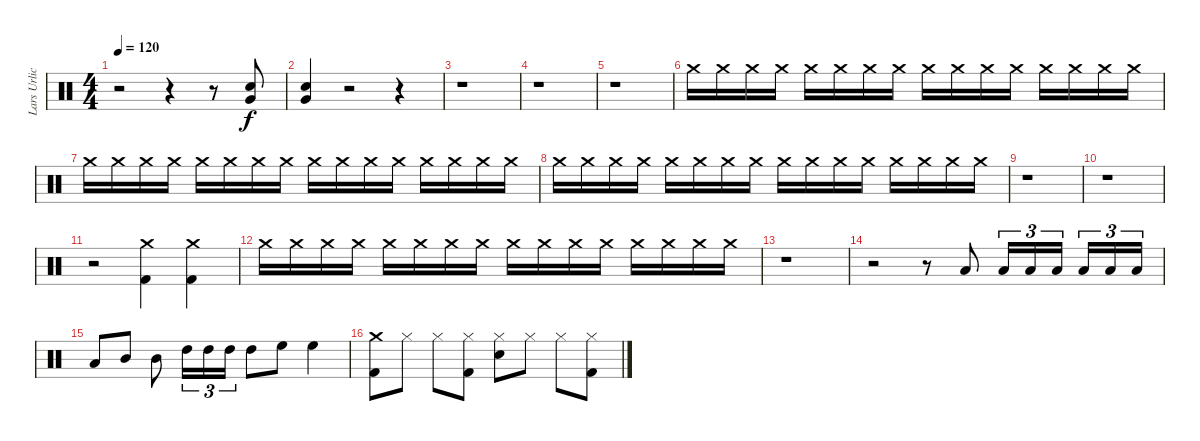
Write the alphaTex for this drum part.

\track ("Lars Urlich (drums)" "Lars Urlic") {instrument percussion}
\staff {score}
\articulation defaults
\ts (4 4)
\tempo 120
\clef neutral
\ks c
r.2{dy f} r.4 r.8 ("Snare (hit) 2" "Very Low Tom (hit)").8 |
("Snare (hit) 2" "Very Low Tom (hit)").4 r.2 r.4 |
r.1 |
r.1 |
r.1 |
"Crash medium (hit)".16 "Crash medium (hit)".16 "Crash medium (hit)".16 "Crash medium (hit)".16 "Crash medium (hit)".16 "Crash medium (hit)".16 "Crash medium (hit)".16 "Crash medium (hit)".16 "Crash medium (hit)".16 "Crash medium (hit)".16 "Crash medium (hit)".16 "Crash medium (hit)".16 "Crash medium (hit)".16 "Crash medium (hit)".16 "Crash medium (hit)".16 "Crash medium (hit)".16 |
"Crash medium (hit)".16 "Crash medium (hit)".16 "Crash medium (hit)".16 "Crash medium (hit)".16 "Crash medium (hit)".16 "Crash medium (hit)".16 "Crash medium (hit)".16 "Crash medium (hit)".16 "Crash medium (hit)".16 "Crash medium (hit)".16 "Crash medium (hit)".16 "Crash medium (hit)".16 "Crash medium (hit)".16 "Crash medium (hit)".16 "Crash medium (hit)".16 "Crash medium (hit)".16 |
"Crash medium (hit)".16 "Crash medium (hit)".16 "Crash medium (hit)".16 "Crash medium (hit)".16 "Crash medium (hit)".16 "Crash medium (hit)".16 "Crash medium (hit)".16 "Crash medium (hit)".16 "Crash medium (hit)".16 "Crash medium (hit)".16 "Crash medium (hit)".16 "Crash medium (hit)".16 "Crash medium (hit)".16 "Crash medium (hit)".16 "Crash medium (hit)".16 "Crash medium (hit)".16 |
r.1 |
r.1 |
r.2 ("Crash medium (hit)" "Kick (hit) 2").4 ("Crash medium (hit)" "Kick (hit) 2").4 |
"Crash medium (hit)".16 "Crash medium (hit)".16 "Crash medium (hit)".16 "Crash medium (hit)".16 "Crash medium (hit)".16 "Crash medium (hit)".16 "Crash medium (hit)".16 "Crash medium (hit)".16 "Crash medium (hit)".16 "Crash medium (hit)".16 "Crash medium (hit)".16 "Crash medium (hit)".16 "Crash medium (hit)".16 "Crash medium (hit)".16 "Crash medium (hit)".16 "Crash medium (hit)".16 |
r.1 |
r.2 r.8 "Low Tom (hit)".8 "Low Tom (hit)".16{tu (3 2)} "Low Tom (hit)".16{tu (3 2)} "Low Tom (hit)".16{tu (3 2)} "Low Tom (hit)".16{tu (3 2)} "Low Tom (hit)".16{tu (3 2)} "Low Tom (hit)".16{tu (3 2)} |
"Low Tom (hit)".8 "Mid Tom (hit)".8 "Mid Tom (hit)".8 "High Tom (hit)".16{tu (3 2)} "High Tom (hit)".16{tu (3 2)} "High Tom (hit)".16{tu (3 2)} "High Tom (hit)".8 "High Floor Tom (hit)".8 "High Floor Tom (hit)".4 |
("Crash medium (hit)" "Kick (hit) 2").8 "Hi-Hat (closed)".8 "Hi-Hat (closed)".8 ("Kick (hit) 2" "Hi-Hat (closed)").8 ("Snare (hit) 2" "Hi-Hat (closed)").8 "Hi-Hat (closed)".8 "Hi-Hat (closed)".8 ("Kick (hit) 2" "Hi-Hat (closed)").8
